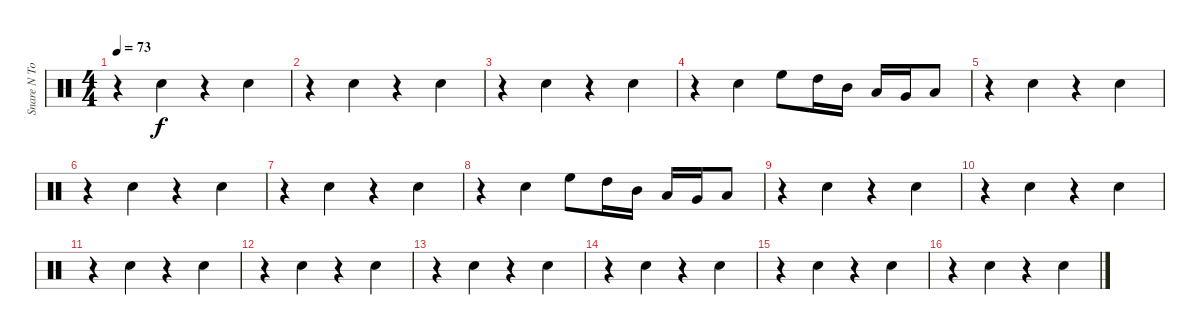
\track ("Snare N Toms" "Snare N To") {instrument percussion}
\staff {score}
\articulation defaults
\ts (4 4)
\tempo 73
\clef neutral
\ks c
r.4{dy f} "Snare (hit) 2".4 r.4 "Snare (hit) 2".4 |
r.4 "Snare (hit) 2".4 r.4 "Snare (hit) 2".4 |
r.4 "Snare (hit) 2".4 r.4 "Snare (hit) 2".4 |
r.4 "Snare (hit) 2".4 "High Floor Tom (hit)".8 "High Tom (hit)".16 "Mid Tom (hit)".16 "Low Tom (hit)".16 "Very Low Tom (hit)".16 "Low Floor Tom (hit)".8 |
r.4 "Snare (hit) 2".4 r.4 "Snare (hit) 2".4 |
r.4 "Snare (hit) 2".4 r.4 "Snare (hit) 2".4 |
r.4 "Snare (hit) 2".4 r.4 "Snare (hit) 2".4 |
r.4 "Snare (hit) 2".4 "High Floor Tom (hit)".8 "High Tom (hit)".16 "Mid Tom (hit)".16 "Low Tom (hit)".16 "Very Low Tom (hit)".16 "Low Floor Tom (hit)".8 |
r.4 "Snare (hit) 2".4 r.4 "Snare (hit) 2".4 |
r.4 "Snare (hit) 2".4 r.4 "Snare (hit) 2".4 |
r.4 "Snare (hit) 2".4 r.4 "Snare (hit) 2".4 |
r.4 "Snare (hit) 2".4 r.4 "Snare (hit) 2".4 |
r.4 "Snare (hit) 2".4 r.4 "Snare (hit) 2".4 |
r.4 "Snare (hit) 2".4 r.4 "Snare (hit) 2".4 |
r.4 "Snare (hit) 2".4 r.4 "Snare (hit) 2".4 |
r.4 "Snare (hit) 2".4 r.4 "Snare (hit) 2".4
